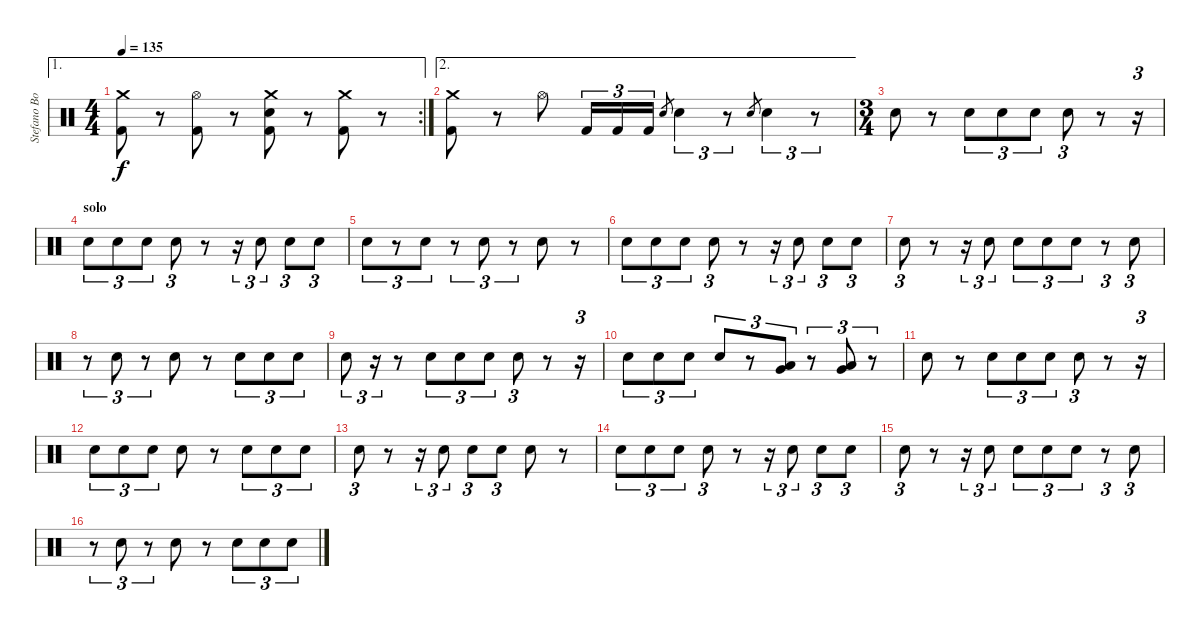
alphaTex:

\track ("Stefano Bonini" "Stefano Bo") {instrument percussion}
\staff {score}
\articulation defaults
\ae 1
\rc 2
\ts (4 4)
\tempo 135
\clef neutral
\ks c
("Crash medium (hit)" "Kick (hit) 2").8{dy f} r.8 ("Hi-Hat (open)" "Kick (hit) 2").8 r.8 ("Crash medium (hit)" "Electric Snare (hit)" "Kick (hit) 2").8 r.8 ("Crash medium (hit)" "Kick (hit) 2").8 r.8 |
\ae 2
("Crash medium (hit)" "Kick (hit) 2").8 r.8 "Hi-Hat (open)".8 "Kick (hit) 2".16{tu (3 2)} "Kick (hit) 2".16{tu (3 2)} "Kick (hit) 2".16{tu (3 2)} "Electric Snare (hit)".8{gr} "Electric Snare (hit)".4{tu (3 2)} r.8{tu (3 2)} "Electric Snare (hit)".8{gr} "Electric Snare (hit)".4{tu (3 2)} r.8{tu (3 2)} |
\ts (3 4)
"Electric Snare (hit)".8 r.8 "Electric Snare (hit)".8{tu (3 2)} "Electric Snare (hit)".8{tu (3 2)} "Electric Snare (hit)".8{tu (3 2)} "Electric Snare (hit)".8{tu (3 2)} r.8 r.16{tu (3 2)} |
\section ("" "solo")
"Electric Snare (hit)".8{tu (3 2)} "Electric Snare (hit)".8{tu (3 2)} "Electric Snare (hit)".8{tu (3 2)} "Electric Snare (hit)".8{tu (3 2)} r.8 r.16{tu (3 2)} "Electric Snare (hit)".8{tu (3 2)} "Electric Snare (hit)".8{tu (3 2)} "Electric Snare (hit)".8{tu (3 2)} |
"Electric Snare (hit)".8{tu (3 2)} r.8{tu (3 2)} "Electric Snare (hit)".8{tu (3 2)} r.8{tu (3 2)} "Electric Snare (hit)".8{tu (3 2)} r.8{tu (3 2)} "Electric Snare (hit)".8 r.8 |
"Electric Snare (hit)".8{tu (3 2)} "Electric Snare (hit)".8{tu (3 2)} "Electric Snare (hit)".8{tu (3 2)} "Electric Snare (hit)".8{tu (3 2)} r.8 r.16{tu (3 2)} "Electric Snare (hit)".8{tu (3 2)} "Electric Snare (hit)".8{tu (3 2)} "Electric Snare (hit)".8{tu (3 2)} |
"Electric Snare (hit)".8{tu (3 2)} r.8 r.16{tu (3 2)} "Electric Snare (hit)".8{tu (3 2)} "Electric Snare (hit)".8{tu (3 2)} "Electric Snare (hit)".8{tu (3 2)} "Electric Snare (hit)".8{tu (3 2)} r.8{tu (3 2)} "Electric Snare (hit)".8{tu (3 2)} |
r.8{tu (3 2)} "Electric Snare (hit)".8{tu (3 2)} r.8{tu (3 2)} "Electric Snare (hit)".8 r.8 "Electric Snare (hit)".8{tu (3 2)} "Electric Snare (hit)".8{tu (3 2)} "Electric Snare (hit)".8{tu (3 2)} |
"Electric Snare (hit)".8{tu (3 2)} r.16{tu (3 2)} r.8 "Electric Snare (hit)".8{tu (3 2)} "Electric Snare (hit)".8{tu (3 2)} "Electric Snare (hit)".8{tu (3 2)} "Electric Snare (hit)".8{tu (3 2)} r.8 r.16{tu (3 2)} |
"Electric Snare (hit)".8{tu (3 2)} "Electric Snare (hit)".8{tu (3 2)} "Electric Snare (hit)".8{tu (3 2)} "Electric Snare (hit)".8{tu (3 2)} r.8{tu (3 2)} ("Low Tom (hit)" "Very Low Tom (hit)").8{tu (3 2)} r.8{tu (3 2)} ("Very Low Tom (hit)" "Low Floor Tom (hit)").8{tu (3 2)} r.8{tu (3 2)} |
"Electric Snare (hit)".8 r.8 "Electric Snare (hit)".8{tu (3 2)} "Electric Snare (hit)".8{tu (3 2)} "Electric Snare (hit)".8{tu (3 2)} "Electric Snare (hit)".8{tu (3 2)} r.8 r.16{tu (3 2)} |
"Electric Snare (hit)".8{tu (3 2)} "Electric Snare (hit)".8{tu (3 2)} "Electric Snare (hit)".8{tu (3 2)} "Electric Snare (hit)".8 r.8 "Electric Snare (hit)".8{tu (3 2)} "Electric Snare (hit)".8{tu (3 2)} "Electric Snare (hit)".8{tu (3 2)} |
"Electric Snare (hit)".8{tu (3 2)} r.8 r.16{tu (3 2)} "Electric Snare (hit)".8{tu (3 2)} "Electric Snare (hit)".8{tu (3 2)} "Electric Snare (hit)".8{tu (3 2)} "Electric Snare (hit)".8 r.8 |
"Electric Snare (hit)".8{tu (3 2)} "Electric Snare (hit)".8{tu (3 2)} "Electric Snare (hit)".8{tu (3 2)} "Electric Snare (hit)".8{tu (3 2)} r.8 r.16{tu (3 2)} "Electric Snare (hit)".8{tu (3 2)} "Electric Snare (hit)".8{tu (3 2)} "Electric Snare (hit)".8{tu (3 2)} |
"Electric Snare (hit)".8{tu (3 2)} r.8 r.16{tu (3 2)} "Electric Snare (hit)".8{tu (3 2)} "Electric Snare (hit)".8{tu (3 2)} "Electric Snare (hit)".8{tu (3 2)} "Electric Snare (hit)".8{tu (3 2)} r.8{tu (3 2)} "Electric Snare (hit)".8{tu (3 2)} |
r.8{tu (3 2)} "Electric Snare (hit)".8{tu (3 2)} r.8{tu (3 2)} "Electric Snare (hit)".8 r.8 "Electric Snare (hit)".8{tu (3 2)} "Electric Snare (hit)".8{tu (3 2)} "Electric Snare (hit)".8{tu (3 2)}
